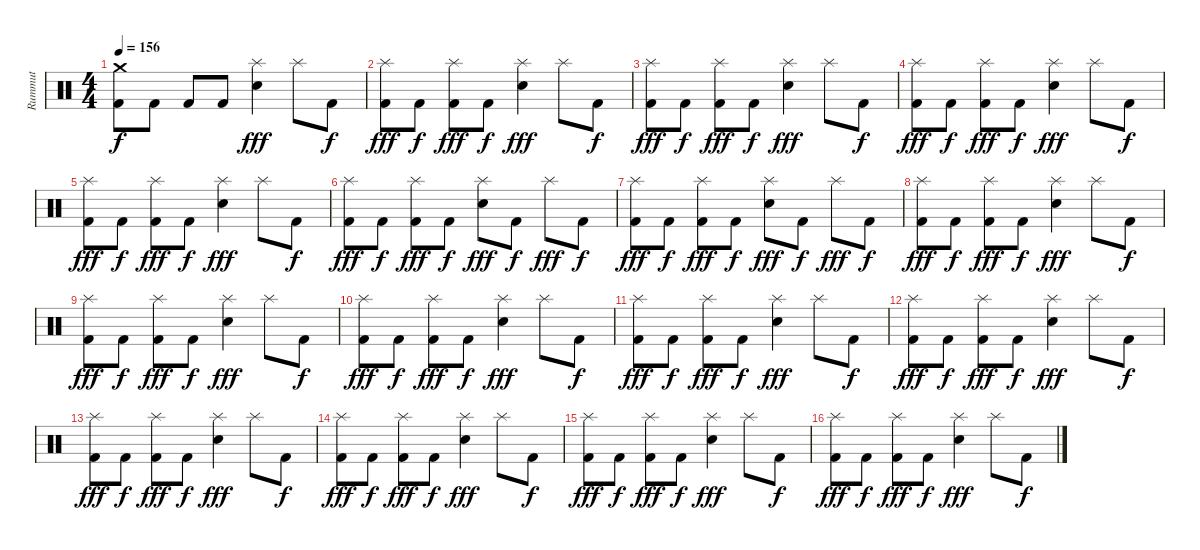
\track ("Rummut" "Rummut") {instrument percussion}
\staff {score}
\articulation defaults
\ts (4 4)
\tempo 156
\clef neutral
\ks c
("Kick (hit) 2" "Crash medium (hit)").8{dy f} "Kick (hit) 2".8 "Kick (hit) 2".8 "Kick (hit) 2".8 ("Splash (hit)" "Snare (hit) 2").4{dy fff} "Splash (hit)".8 "Kick (hit) 2".8{dy f} |
("Kick (hit) 2" "Splash (hit)").8{dy fff} "Kick (hit) 2".8{dy f} ("Kick (hit) 2" "Splash (hit)").8{dy fff} "Kick (hit) 2".8{dy f} ("Splash (hit)" "Snare (hit) 2").4{dy fff} "Splash (hit)".8 "Kick (hit) 2".8{dy f} |
("Kick (hit) 2" "Splash (hit)").8{dy fff} "Kick (hit) 2".8{dy f} ("Kick (hit) 2" "Splash (hit)").8{dy fff} "Kick (hit) 2".8{dy f} ("Splash (hit)" "Snare (hit) 2").4{dy fff} "Splash (hit)".8 "Kick (hit) 2".8{dy f} |
("Kick (hit) 2" "Splash (hit)").8{dy fff} "Kick (hit) 2".8{dy f} ("Kick (hit) 2" "Splash (hit)").8{dy fff} "Kick (hit) 2".8{dy f} ("Splash (hit)" "Snare (hit) 2").4{dy fff} "Splash (hit)".8 "Kick (hit) 2".8{dy f} |
("Kick (hit) 2" "Splash (hit)").8{dy fff} "Kick (hit) 2".8{dy f} ("Kick (hit) 2" "Splash (hit)").8{dy fff} "Kick (hit) 2".8{dy f} ("Splash (hit)" "Snare (hit) 2").4{dy fff} "Splash (hit)".8 "Kick (hit) 2".8{dy f} |
("Kick (hit) 2" "Splash (hit)").8{dy fff} "Kick (hit) 2".8{dy f} ("Kick (hit) 2" "Splash (hit)").8{dy fff} "Kick (hit) 2".8{dy f} ("Splash (hit)" "Snare (hit) 2").8{dy fff} "Kick (hit) 2".8{dy f} "Splash (hit)".8{dy fff} "Kick (hit) 2".8{dy f} |
("Kick (hit) 2" "Splash (hit)").8{dy fff} "Kick (hit) 2".8{dy f} ("Kick (hit) 2" "Splash (hit)").8{dy fff} "Kick (hit) 2".8{dy f} ("Splash (hit)" "Snare (hit) 2").8{dy fff} "Kick (hit) 2".8{dy f} "Splash (hit)".8{dy fff} "Kick (hit) 2".8{dy f} |
("Kick (hit) 2" "Splash (hit)").8{dy fff} "Kick (hit) 2".8{dy f} ("Kick (hit) 2" "Splash (hit)").8{dy fff} "Kick (hit) 2".8{dy f} ("Splash (hit)" "Snare (hit) 2").4{dy fff} "Splash (hit)".8 "Kick (hit) 2".8{dy f} |
("Kick (hit) 2" "Splash (hit)").8{dy fff} "Kick (hit) 2".8{dy f} ("Kick (hit) 2" "Splash (hit)").8{dy fff} "Kick (hit) 2".8{dy f} ("Splash (hit)" "Snare (hit) 2").4{dy fff} "Splash (hit)".8 "Kick (hit) 2".8{dy f} |
("Kick (hit) 2" "Splash (hit)").8{dy fff} "Kick (hit) 2".8{dy f} ("Kick (hit) 2" "Splash (hit)").8{dy fff} "Kick (hit) 2".8{dy f} ("Splash (hit)" "Snare (hit) 2").4{dy fff} "Splash (hit)".8 "Kick (hit) 2".8{dy f} |
("Kick (hit) 2" "Splash (hit)").8{dy fff} "Kick (hit) 2".8{dy f} ("Kick (hit) 2" "Splash (hit)").8{dy fff} "Kick (hit) 2".8{dy f} ("Splash (hit)" "Snare (hit) 2").4{dy fff} "Splash (hit)".8 "Kick (hit) 2".8{dy f} |
("Kick (hit) 2" "Splash (hit)").8{dy fff} "Kick (hit) 2".8{dy f} ("Kick (hit) 2" "Splash (hit)").8{dy fff} "Kick (hit) 2".8{dy f} ("Splash (hit)" "Snare (hit) 2").4{dy fff} "Splash (hit)".8 "Kick (hit) 2".8{dy f} |
("Kick (hit) 2" "Splash (hit)").8{dy fff} "Kick (hit) 2".8{dy f} ("Kick (hit) 2" "Splash (hit)").8{dy fff} "Kick (hit) 2".8{dy f} ("Splash (hit)" "Snare (hit) 2").4{dy fff} "Splash (hit)".8 "Kick (hit) 2".8{dy f} |
("Kick (hit) 2" "Splash (hit)").8{dy fff} "Kick (hit) 2".8{dy f} ("Kick (hit) 2" "Splash (hit)").8{dy fff} "Kick (hit) 2".8{dy f} ("Splash (hit)" "Snare (hit) 2").4{dy fff} "Splash (hit)".8 "Kick (hit) 2".8{dy f} |
("Kick (hit) 2" "Splash (hit)").8{dy fff} "Kick (hit) 2".8{dy f} ("Kick (hit) 2" "Splash (hit)").8{dy fff} "Kick (hit) 2".8{dy f} ("Splash (hit)" "Snare (hit) 2").4{dy fff} "Splash (hit)".8 "Kick (hit) 2".8{dy f} |
("Kick (hit) 2" "Splash (hit)").8{dy fff} "Kick (hit) 2".8{dy f} ("Kick (hit) 2" "Splash (hit)").8{dy fff} "Kick (hit) 2".8{dy f} ("Splash (hit)" "Snare (hit) 2").4{dy fff} "Splash (hit)".8 "Kick (hit) 2".8{dy f}
